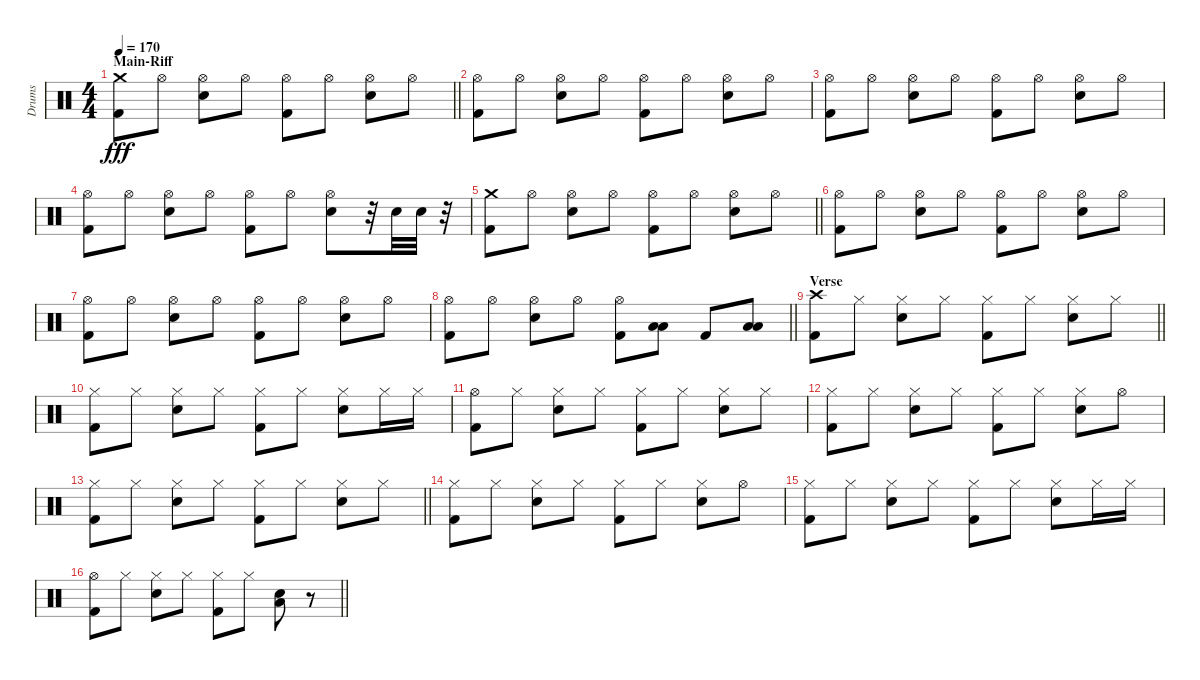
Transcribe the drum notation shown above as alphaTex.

\track ("Drums" "Drums") {instrument percussion}
\staff {score}
\articulation defaults
\ts (4 4)
\section ("" "Main-Riff")
\tempo 170
\clef neutral
\barLineRight lightlight
\ks c
("Crash medium (hit)" "Kick (hit) 2").8{dy fff} "Hi-Hat (open)".8 ("Hi-Hat (open)" "Electric Snare (hit)").8 "Hi-Hat (open)".8 ("Hi-Hat (open)" "Kick (hit) 2").8 "Hi-Hat (open)".8 ("Hi-Hat (open)" "Electric Snare (hit)").8 "Hi-Hat (open)".8 |
("Hi-Hat (open)" "Kick (hit) 2").8 "Hi-Hat (open)".8 ("Hi-Hat (open)" "Electric Snare (hit)").8 "Hi-Hat (open)".8 ("Hi-Hat (open)" "Kick (hit) 2").8 "Hi-Hat (open)".8 ("Hi-Hat (open)" "Electric Snare (hit)").8 "Hi-Hat (open)".8 |
("Hi-Hat (open)" "Kick (hit) 2").8 "Hi-Hat (open)".8 ("Hi-Hat (open)" "Electric Snare (hit)").8 "Hi-Hat (open)".8 ("Hi-Hat (open)" "Kick (hit) 2").8 "Hi-Hat (open)".8 ("Hi-Hat (open)" "Electric Snare (hit)").8 "Hi-Hat (open)".8 |
("Hi-Hat (open)" "Kick (hit) 2").8 "Hi-Hat (open)".8 ("Hi-Hat (open)" "Electric Snare (hit)").8 "Hi-Hat (open)".8 ("Hi-Hat (open)" "Kick (hit) 2").8 "Hi-Hat (open)".8 ("Hi-Hat (open)" "Electric Snare (hit)").8 r.32 "Electric Snare (hit)".32 "Electric Snare (hit)".32 r.32 |
\barLineRight lightlight
("Crash medium (hit)" "Kick (hit) 2").8 "Hi-Hat (open)".8 ("Hi-Hat (open)" "Electric Snare (hit)").8 "Hi-Hat (open)".8 ("Hi-Hat (open)" "Kick (hit) 2").8 "Hi-Hat (open)".8 ("Hi-Hat (open)" "Electric Snare (hit)").8 "Hi-Hat (open)".8 |
("Hi-Hat (open)" "Kick (hit) 2").8 "Hi-Hat (open)".8 ("Hi-Hat (open)" "Electric Snare (hit)").8 "Hi-Hat (open)".8 ("Hi-Hat (open)" "Kick (hit) 2").8 "Hi-Hat (open)".8 ("Hi-Hat (open)" "Electric Snare (hit)").8 "Hi-Hat (open)".8 |
("Hi-Hat (open)" "Kick (hit) 2").8 "Hi-Hat (open)".8 ("Hi-Hat (open)" "Electric Snare (hit)").8 "Hi-Hat (open)".8 ("Hi-Hat (open)" "Kick (hit) 2").8 "Hi-Hat (open)".8 ("Hi-Hat (open)" "Electric Snare (hit)").8 "Hi-Hat (open)".8 |
\barLineRight lightlight
("Hi-Hat (open)" "Kick (hit) 2").8 "Hi-Hat (open)".8 ("Hi-Hat (open)" "Electric Snare (hit)").8 "Hi-Hat (open)".8 ("Hi-Hat (open)" "Kick (hit) 2").8 ("Low Tom (hit)" "Low Floor Tom (hit)").8 "Kick (hit) 2".8 ("Low Tom (hit)" "Low Floor Tom (hit)").8 |
\section ("" "Verse")
\barLineRight lightlight
("Crash high (hit)" "Kick (hit) 2").8 "Hi-Hat (closed)".8 ("Hi-Hat (closed)" "Electric Snare (hit)").8 "Hi-Hat (closed)".8 ("Hi-Hat (closed)" "Kick (hit) 2").8 "Hi-Hat (closed)".8 ("Hi-Hat (closed)" "Electric Snare (hit)").8 "Hi-Hat (closed)".8 |
("Hi-Hat (closed)" "Kick (hit) 2").8 "Hi-Hat (closed)".8 ("Hi-Hat (closed)" "Electric Snare (hit)").8 "Hi-Hat (closed)".8 ("Hi-Hat (closed)" "Kick (hit) 2").8 "Hi-Hat (closed)".8 ("Hi-Hat (closed)" "Electric Snare (hit)").8 "Hi-Hat (closed)".16 "Hi-Hat (closed)".16 |
("Hi-Hat (open)" "Kick (hit) 2").8 "Hi-Hat (closed)".8 ("Hi-Hat (closed)" "Electric Snare (hit)").8 "Hi-Hat (closed)".8 ("Hi-Hat (closed)" "Kick (hit) 2").8 "Hi-Hat (closed)".8 ("Hi-Hat (closed)" "Electric Snare (hit)").8 "Hi-Hat (closed)".8 |
("Hi-Hat (closed)" "Kick (hit) 2").8 "Hi-Hat (closed)".8 ("Hi-Hat (closed)" "Electric Snare (hit)").8 "Hi-Hat (closed)".8 ("Hi-Hat (closed)" "Kick (hit) 2").8 "Hi-Hat (closed)".8 ("Hi-Hat (closed)" "Electric Snare (hit)").8 "Hi-Hat (open)".8 |
\barLineRight lightlight
("Hi-Hat (closed)" "Kick (hit) 2").8 "Hi-Hat (closed)".8 ("Hi-Hat (closed)" "Electric Snare (hit)").8 "Hi-Hat (closed)".8 ("Hi-Hat (closed)" "Kick (hit) 2").8 "Hi-Hat (closed)".8 ("Hi-Hat (closed)" "Electric Snare (hit)").8 "Hi-Hat (closed)".8 |
("Hi-Hat (closed)" "Kick (hit) 2").8 "Hi-Hat (closed)".8 ("Hi-Hat (closed)" "Electric Snare (hit)").8 "Hi-Hat (closed)".8 ("Hi-Hat (closed)" "Kick (hit) 2").8 "Hi-Hat (closed)".8 ("Hi-Hat (closed)" "Electric Snare (hit)").8 "Hi-Hat (open)".8 |
("Hi-Hat (closed)" "Kick (hit) 2").8 "Hi-Hat (closed)".8 ("Hi-Hat (closed)" "Electric Snare (hit)").8 "Hi-Hat (closed)".8 ("Hi-Hat (closed)" "Kick (hit) 2").8 "Hi-Hat (closed)".8 ("Hi-Hat (closed)" "Electric Snare (hit)").8 "Hi-Hat (closed)".16 "Hi-Hat (closed)".16 |
\barLineRight lightlight
("Hi-Hat (open)" "Kick (hit) 2").8 "Hi-Hat (closed)".8 ("Hi-Hat (closed)" "Electric Snare (hit)").8 "Hi-Hat (closed)".8 ("Hi-Hat (closed)" "Kick (hit) 2").8 "Hi-Hat (closed)".8 ("Low Floor Tom (hit)" "Electric Snare (hit)").8 r.8
